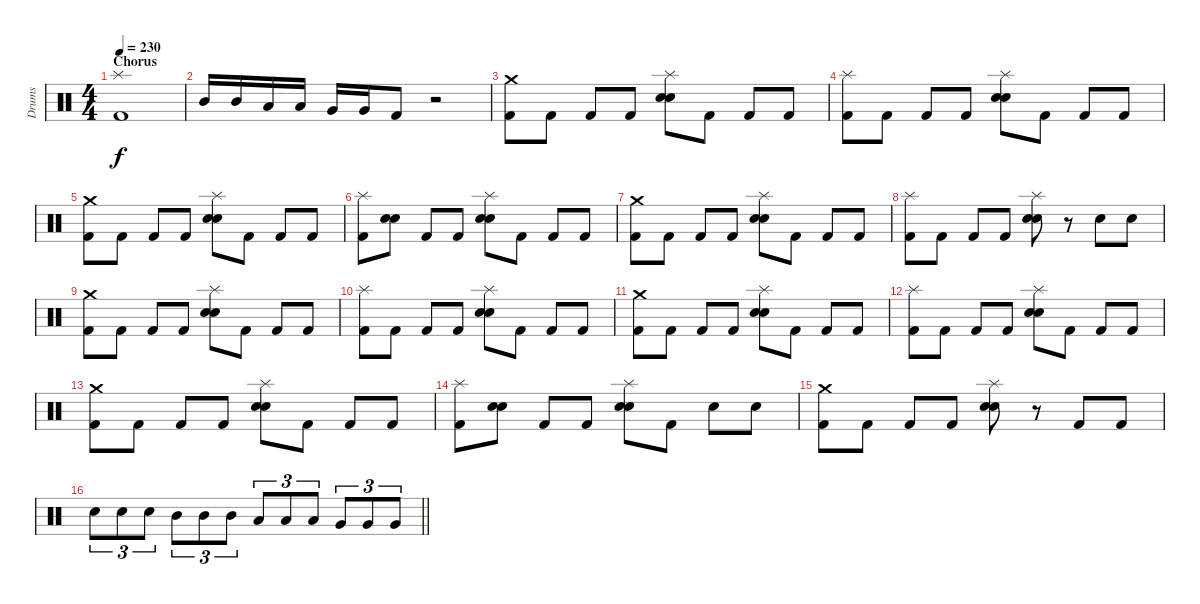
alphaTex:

\track ("Drums" "Drums") {instrument percussion}
\staff {score}
\articulation defaults
\ts (4 4)
\section ("" "Chorus")
\tempo 230
\clef neutral
\ks c
("Splash (hit)" "Kick (hit) 2").1{dy f} |
"Mid Tom (hit)".16 "Mid Tom (hit)".16 "Low Tom (hit)".16 "Low Tom (hit)".16 "Very Low Tom (hit)".16 "Very Low Tom (hit)".16 "Kick (hit) 2".8 r.2 |
("Crash medium (hit)" "Kick (hit) 2").8 "Kick (hit) 2".8 "Kick (hit) 2".8 "Kick (hit) 2".8 ("Splash (hit)" "Electric Snare (hit)" "Snare (hit) 2").8 "Kick (hit) 2".8 "Kick (hit) 2".8 "Kick (hit) 2".8 |
("Splash (hit)" "Kick (hit) 2").8 "Kick (hit) 2".8 "Kick (hit) 2".8 "Kick (hit) 2".8 ("Splash (hit)" "Electric Snare (hit)" "Snare (hit) 2").8 "Kick (hit) 2".8 "Kick (hit) 2".8 "Kick (hit) 2".8 |
("Crash medium (hit)" "Kick (hit) 2").8 "Kick (hit) 2".8 "Kick (hit) 2".8 "Kick (hit) 2".8 ("Splash (hit)" "Electric Snare (hit)" "Snare (hit) 2").8 "Kick (hit) 2".8 "Kick (hit) 2".8 "Kick (hit) 2".8 |
("Splash (hit)" "Kick (hit) 2").8 ("Electric Snare (hit)" "Snare (hit) 2").8 "Kick (hit) 2".8 "Kick (hit) 2".8 ("Splash (hit)" "Electric Snare (hit)" "Snare (hit) 2").8 "Kick (hit) 2".8 "Kick (hit) 2".8 "Kick (hit) 2".8 |
("Crash medium (hit)" "Kick (hit) 2").8 "Kick (hit) 2".8 "Kick (hit) 2".8 "Kick (hit) 2".8 ("Splash (hit)" "Electric Snare (hit)" "Snare (hit) 2").8 "Kick (hit) 2".8 "Kick (hit) 2".8 "Kick (hit) 2".8 |
("Splash (hit)" "Kick (hit) 2").8 "Kick (hit) 2".8 "Kick (hit) 2".8 "Kick (hit) 2".8 ("Splash (hit)" "Electric Snare (hit)" "Snare (hit) 2").8 r.8 "Electric Snare (hit)".8 "Electric Snare (hit)".8 |
("Crash medium (hit)" "Kick (hit) 2").8 "Kick (hit) 2".8 "Kick (hit) 2".8 "Kick (hit) 2".8 ("Splash (hit)" "Electric Snare (hit)" "Snare (hit) 2").8 "Kick (hit) 2".8 "Kick (hit) 2".8 "Kick (hit) 2".8 |
("Splash (hit)" "Kick (hit) 2").8 "Kick (hit) 2".8 "Kick (hit) 2".8 "Kick (hit) 2".8 ("Splash (hit)" "Electric Snare (hit)" "Snare (hit) 2").8 "Kick (hit) 2".8 "Kick (hit) 2".8 "Kick (hit) 2".8 |
("Crash medium (hit)" "Kick (hit) 2").8 "Kick (hit) 2".8 "Kick (hit) 2".8 "Kick (hit) 2".8 ("Splash (hit)" "Electric Snare (hit)" "Snare (hit) 2").8 "Kick (hit) 2".8 "Kick (hit) 2".8 "Kick (hit) 2".8 |
("Splash (hit)" "Kick (hit) 2").8 "Kick (hit) 2".8 "Kick (hit) 2".8 "Kick (hit) 2".8 ("Splash (hit)" "Electric Snare (hit)" "Snare (hit) 2").8 "Kick (hit) 2".8 "Kick (hit) 2".8 "Kick (hit) 2".8 |
("Crash medium (hit)" "Kick (hit) 2").8 "Kick (hit) 2".8 "Kick (hit) 2".8 "Kick (hit) 2".8 ("Splash (hit)" "Electric Snare (hit)" "Snare (hit) 2").8 "Kick (hit) 2".8 "Kick (hit) 2".8 "Kick (hit) 2".8 |
("Splash (hit)" "Kick (hit) 2").8 ("Electric Snare (hit)" "Snare (hit) 2").8 "Kick (hit) 2".8 "Kick (hit) 2".8 ("Splash (hit)" "Electric Snare (hit)" "Snare (hit) 2").8 "Kick (hit) 2".8 "Electric Snare (hit)".8 "Electric Snare (hit)".8 |
("Crash medium (hit)" "Kick (hit) 2").8 "Kick (hit) 2".8 "Kick (hit) 2".8 "Kick (hit) 2".8 ("Splash (hit)" "Electric Snare (hit)" "Snare (hit) 2").8 r.8 "Kick (hit) 2".8 "Kick (hit) 2".8 |
\barLineRight lightlight "Electric Snare (hit)".8{tu (3 2)} "Electric Snare (hit)".8{tu (3 2)} "Electric Snare (hit)".8{tu (3 2)} "Mid Tom (hit)".8{tu (3 2)} "Mid Tom (hit)".8{tu (3 2)} "Mid Tom (hit)".8{tu (3 2)} "Low Tom (hit)".8{tu (3 2)} "Low Tom (hit)".8{tu (3 2)} "Low Tom (hit)".8{tu (3 2)} "Very Low Tom (hit)".8{tu (3 2)} "Very Low Tom (hit)".8{tu (3 2)} "Very Low Tom (hit)".8{tu (3 2)}
